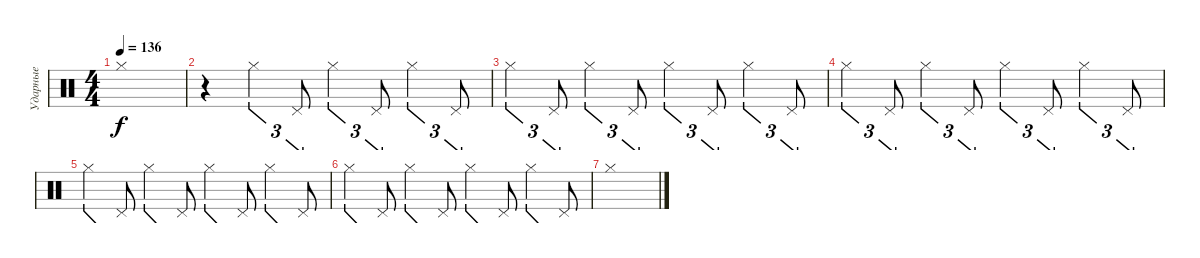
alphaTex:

\track ("Ударные" "Ударные") {instrument percussion}
\staff {score}
\articulation defaults
\ts (4 4)
\tempo 136
\clef neutral
\ks c "Hi-Hat (closed)".1{dy f}
|
r.4{volume 1} "Hi-Hat (closed)".4{tu (3 2)} "Pedal Hi-Hat (hit)".8{tu (3 2)} "Hi-Hat (closed)".4{tu (3 2)} "Pedal Hi-Hat (hit)".8{tu (3 2)} "Hi-Hat (closed)".4{tu (3 2)} "Pedal Hi-Hat (hit)".8{tu (3 2)} |
"Hi-Hat (closed)".4{tu (3 2)} "Pedal Hi-Hat (hit)".8{tu (3 2)} "Hi-Hat (closed)".4{tu (3 2)} "Pedal Hi-Hat (hit)".8{tu (3 2)} "Hi-Hat (closed)".4{tu (3 2)} "Pedal Hi-Hat (hit)".8{tu (3 2)} "Hi-Hat (closed)".4{tu (3 2)} "Pedal Hi-Hat (hit)".8{tu (3 2)} |
"Hi-Hat (closed)".4{tu (3 2)} "Pedal Hi-Hat (hit)".8{tu (3 2)} "Hi-Hat (closed)".4{tu (3 2)} "Pedal Hi-Hat (hit)".8{tu (3 2)} "Hi-Hat (closed)".4{tu (3 2)} "Pedal Hi-Hat (hit)".8{tu (3 2)} "Hi-Hat (closed)".4{tu (3 2)} "Pedal Hi-Hat (hit)".8{tu (3 2)} |
"Hi-Hat (closed)".4{tu (3 2)} "Pedal Hi-Hat (hit)".8{tu (3 2)} "Hi-Hat (closed)".4{tu (3 2)} "Pedal Hi-Hat (hit)".8{tu (3 2)} "Hi-Hat (closed)".4{tu (3 2)} "Pedal Hi-Hat (hit)".8{tu (3 2)} "Hi-Hat (closed)".4{tu (3 2)} "Pedal Hi-Hat (hit)".8{tu (3 2)} |
"Hi-Hat (closed)".4{tu (3 2)} "Pedal Hi-Hat (hit)".8{tu (3 2)} "Hi-Hat (closed)".4{tu (3 2)} "Pedal Hi-Hat (hit)".8{tu (3 2)} "Hi-Hat (closed)".4{tu (3 2)} "Pedal Hi-Hat (hit)".8{tu (3 2)} "Hi-Hat (closed)".4{tu (3 2)} "Pedal Hi-Hat (hit)".8{tu (3 2)} |
"Hi-Hat (closed)".1
